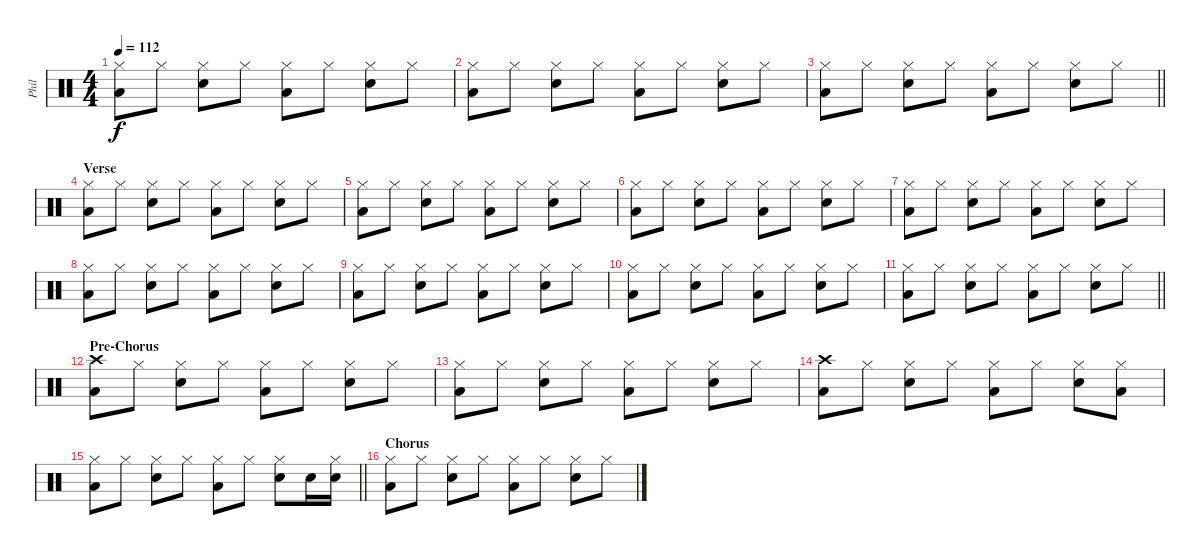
\track ("Phil" "Phil") {instrument percussion}
\staff {score}
\articulation defaults
\ts (4 4)
\tempo 112
\clef neutral
\ks c
("Hi-Hat (closed)" "Low Floor Tom (hit)").8{dy f} "Hi-Hat (closed)".8 ("Hi-Hat (closed)" "Snare (hit) 2").8 "Hi-Hat (closed)".8 ("Hi-Hat (closed)" "Low Floor Tom (hit)").8 "Hi-Hat (closed)".8 ("Hi-Hat (closed)" "Snare (hit) 2").8 "Hi-Hat (closed)".8 |
("Hi-Hat (closed)" "Low Floor Tom (hit)").8 "Hi-Hat (closed)".8 ("Hi-Hat (closed)" "Snare (hit) 2").8 "Hi-Hat (closed)".8 ("Hi-Hat (closed)" "Low Floor Tom (hit)").8 "Hi-Hat (closed)".8 ("Hi-Hat (closed)" "Snare (hit) 2").8 "Hi-Hat (closed)".8 |
\barLineRight lightlight
("Hi-Hat (closed)" "Low Floor Tom (hit)").8 "Hi-Hat (closed)".8 ("Hi-Hat (closed)" "Snare (hit) 2").8 "Hi-Hat (closed)".8 ("Hi-Hat (closed)" "Low Floor Tom (hit)").8 "Hi-Hat (closed)".8 ("Hi-Hat (closed)" "Snare (hit) 2").8 "Hi-Hat (closed)".8 |
\section ("" "Verse")
("Hi-Hat (closed)" "Low Floor Tom (hit)").8 "Hi-Hat (closed)".8 ("Hi-Hat (closed)" "Snare (hit) 2").8 "Hi-Hat (closed)".8 ("Hi-Hat (closed)" "Low Floor Tom (hit)").8 "Hi-Hat (closed)".8 ("Hi-Hat (closed)" "Snare (hit) 2").8 "Hi-Hat (closed)".8 |
("Hi-Hat (closed)" "Low Floor Tom (hit)").8 "Hi-Hat (closed)".8 ("Hi-Hat (closed)" "Snare (hit) 2").8 "Hi-Hat (closed)".8 ("Hi-Hat (closed)" "Low Floor Tom (hit)").8 "Hi-Hat (closed)".8 ("Hi-Hat (closed)" "Snare (hit) 2").8 "Hi-Hat (closed)".8 |
("Hi-Hat (closed)" "Low Floor Tom (hit)").8 "Hi-Hat (closed)".8 ("Hi-Hat (closed)" "Snare (hit) 2").8 "Hi-Hat (closed)".8 ("Hi-Hat (closed)" "Low Floor Tom (hit)").8 "Hi-Hat (closed)".8 ("Hi-Hat (closed)" "Snare (hit) 2").8 "Hi-Hat (closed)".8 |
("Hi-Hat (closed)" "Low Floor Tom (hit)").8 "Hi-Hat (closed)".8 ("Hi-Hat (closed)" "Snare (hit) 2").8 "Hi-Hat (closed)".8 ("Hi-Hat (closed)" "Low Floor Tom (hit)").8 "Hi-Hat (closed)".8 ("Hi-Hat (closed)" "Snare (hit) 2").8 "Hi-Hat (closed)".8 |
("Hi-Hat (closed)" "Low Floor Tom (hit)").8 "Hi-Hat (closed)".8 ("Hi-Hat (closed)" "Snare (hit) 2").8 "Hi-Hat (closed)".8 ("Hi-Hat (closed)" "Low Floor Tom (hit)").8 "Hi-Hat (closed)".8 ("Hi-Hat (closed)" "Snare (hit) 2").8 "Hi-Hat (closed)".8 |
("Hi-Hat (closed)" "Low Floor Tom (hit)").8 "Hi-Hat (closed)".8 ("Hi-Hat (closed)" "Snare (hit) 2").8 "Hi-Hat (closed)".8 ("Hi-Hat (closed)" "Low Floor Tom (hit)").8 "Hi-Hat (closed)".8 ("Hi-Hat (closed)" "Snare (hit) 2").8 "Hi-Hat (closed)".8 |
("Hi-Hat (closed)" "Low Floor Tom (hit)").8 "Hi-Hat (closed)".8 ("Hi-Hat (closed)" "Snare (hit) 2").8 "Hi-Hat (closed)".8 ("Hi-Hat (closed)" "Low Floor Tom (hit)").8 "Hi-Hat (closed)".8 ("Hi-Hat (closed)" "Snare (hit) 2").8 "Hi-Hat (closed)".8 |
\barLineRight lightlight
("Hi-Hat (closed)" "Low Floor Tom (hit)").8 "Hi-Hat (closed)".8 ("Hi-Hat (closed)" "Snare (hit) 2").8 "Hi-Hat (closed)".8 ("Hi-Hat (closed)" "Low Floor Tom (hit)").8 "Hi-Hat (closed)".8 ("Hi-Hat (closed)" "Snare (hit) 2").8 "Hi-Hat (closed)".8 |
\section ("" "Pre-Chorus")
("Crash high (hit)" "Low Floor Tom (hit)").8 "Hi-Hat (closed)".8 ("Hi-Hat (closed)" "Snare (hit) 2").8 "Hi-Hat (closed)".8 ("Hi-Hat (closed)" "Low Floor Tom (hit)").8 "Hi-Hat (closed)".8 ("Hi-Hat (closed)" "Snare (hit) 2").8 "Hi-Hat (closed)".8 |
("Hi-Hat (closed)" "Low Floor Tom (hit)").8 "Hi-Hat (closed)".8 ("Hi-Hat (closed)" "Snare (hit) 2").8 "Hi-Hat (closed)".8 ("Hi-Hat (closed)" "Low Floor Tom (hit)").8 "Hi-Hat (closed)".8 ("Hi-Hat (closed)" "Snare (hit) 2").8 "Hi-Hat (closed)".8 |
("Crash high (hit)" "Low Floor Tom (hit)").8 "Hi-Hat (closed)".8 ("Hi-Hat (closed)" "Snare (hit) 2").8 "Hi-Hat (closed)".8 ("Hi-Hat (closed)" "Low Floor Tom (hit)").8 "Hi-Hat (closed)".8 ("Hi-Hat (closed)" "Snare (hit) 2").8 ("Hi-Hat (closed)" "Low Floor Tom (hit)").8 |
\barLineRight lightlight
("Hi-Hat (closed)" "Low Floor Tom (hit)").8 "Hi-Hat (closed)".8 ("Hi-Hat (closed)" "Snare (hit) 2").8 "Hi-Hat (closed)".8 ("Hi-Hat (closed)" "Low Floor Tom (hit)").8 "Hi-Hat (closed)".8 ("Hi-Hat (closed)" "Snare (hit) 2").8 "Snare (hit) 2".16 ("Hi-Hat (closed)" "Snare (hit) 2").16 |
\section ("" "Chorus")
("Hi-Hat (closed)" "Low Floor Tom (hit)").8 "Hi-Hat (closed)".8 ("Hi-Hat (closed)" "Snare (hit) 2").8 "Hi-Hat (closed)".8 ("Hi-Hat (closed)" "Low Floor Tom (hit)").8 "Hi-Hat (closed)".8 ("Hi-Hat (closed)" "Snare (hit) 2").8 "Hi-Hat (closed)".8
